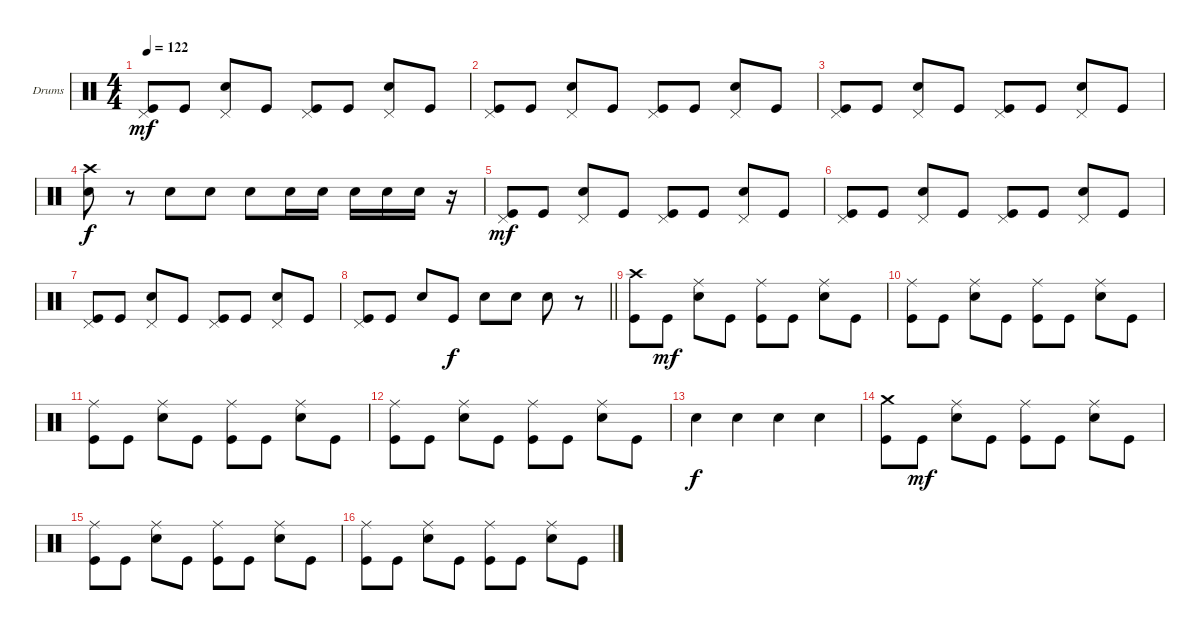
\defaultSystemsLayout 4
\bracketExtendMode groupsimilarinstruments
\firstSystemTrackNameOrientation horizontal
\otherSystemsTrackNameOrientation horizontal
\track ("Drum" "Drums") {instrument percussion}
\staff {score}
\articulation defaults
\ts (4 4)
\tempo 122
\clef neutral
\ks c
("Kick (hit)" "Pedal Hi-Hat (hit)").8{dy mf} "Kick (hit)".8 ("Snare (hit) 2" "Pedal Hi-Hat (hit)").8 "Kick (hit)".8 ("Kick (hit)" "Pedal Hi-Hat (hit)").8 "Kick (hit)".8 ("Snare (hit) 2" "Pedal Hi-Hat (hit)").8 "Kick (hit)".8 |
("Kick (hit)" "Pedal Hi-Hat (hit)").8 "Kick (hit)".8 ("Snare (hit) 2" "Pedal Hi-Hat (hit)").8 "Kick (hit)".8 ("Kick (hit)" "Pedal Hi-Hat (hit)").8 "Kick (hit)".8 ("Snare (hit) 2" "Pedal Hi-Hat (hit)").8 "Kick (hit)".8 |
("Kick (hit)" "Pedal Hi-Hat (hit)").8 "Kick (hit)".8 ("Snare (hit) 2" "Pedal Hi-Hat (hit)").8 "Kick (hit)".8 ("Kick (hit)" "Pedal Hi-Hat (hit)").8 "Kick (hit)".8 ("Snare (hit) 2" "Pedal Hi-Hat (hit)").8 "Kick (hit)".8 |
("Snare (hit) 2" "Crash high (hit)").8{dy f} r.8 "Snare (hit) 2".8 "Snare (hit) 2".8 "Snare (hit) 2".8 "Snare (hit) 2".16 "Snare (hit) 2".16 "Snare (hit) 2".16 "Snare (hit) 2".16 "Snare (hit) 2".16 r.16 |
("Kick (hit)" "Pedal Hi-Hat (hit)").8{dy mf} "Kick (hit)".8 ("Snare (hit) 2" "Pedal Hi-Hat (hit)").8 "Kick (hit)".8 ("Kick (hit)" "Pedal Hi-Hat (hit)").8 "Kick (hit)".8 ("Snare (hit) 2" "Pedal Hi-Hat (hit)").8 "Kick (hit)".8 |
("Kick (hit)" "Pedal Hi-Hat (hit)").8 "Kick (hit)".8 ("Snare (hit) 2" "Pedal Hi-Hat (hit)").8 "Kick (hit)".8 ("Kick (hit)" "Pedal Hi-Hat (hit)").8 "Kick (hit)".8 ("Snare (hit) 2" "Pedal Hi-Hat (hit)").8 "Kick (hit)".8 |
("Kick (hit)" "Pedal Hi-Hat (hit)").8 "Kick (hit)".8 ("Snare (hit) 2" "Pedal Hi-Hat (hit)").8 "Kick (hit)".8 ("Kick (hit)" "Pedal Hi-Hat (hit)").8 "Kick (hit)".8 ("Snare (hit) 2" "Pedal Hi-Hat (hit)").8 "Kick (hit)".8 |
\barLineRight lightlight
("Kick (hit)" "Pedal Hi-Hat (hit)").8 "Kick (hit)".8 "Snare (hit) 2".8 "Kick (hit)".8{dy f} "Snare (hit) 2".8 "Snare (hit) 2".8 "Snare (hit) 2".8 r.8 |
("Kick (hit)" "Crash high (hit)").8 "Kick (hit)".8{dy mf} ("Snare (hit) 2" "Ride (middle)").8 "Kick (hit)".8 ("Kick (hit)" "Ride (middle)").8 "Kick (hit)".8 ("Snare (hit) 2" "Ride (middle)").8 "Kick (hit)".8 |
("Kick (hit)" "Ride (middle)").8 "Kick (hit)".8 ("Snare (hit) 2" "Ride (middle)").8 "Kick (hit)".8 ("Kick (hit)" "Ride (middle)").8 "Kick (hit)".8 ("Snare (hit) 2" "Ride (middle)").8 "Kick (hit)".8 |
("Kick (hit)" "Ride (middle)").8 "Kick (hit)".8 ("Snare (hit) 2" "Ride (middle)").8 "Kick (hit)".8 ("Kick (hit)" "Ride (middle)").8 "Kick (hit)".8 ("Snare (hit) 2" "Ride (middle)").8 "Kick (hit)".8 |
("Kick (hit)" "Ride (middle)").8 "Kick (hit)".8 ("Snare (hit) 2" "Ride (middle)").8 "Kick (hit)".8 ("Kick (hit)" "Ride (middle)").8 "Kick (hit)".8 ("Snare (hit) 2" "Ride (middle)").8 "Kick (hit)".8 |
"Snare (hit) 2".4{dy f} "Snare (hit) 2".4 "Snare (hit) 2".4 "Snare (hit) 2".4 |
("Kick (hit)" "Crash medium (hit)").8 "Kick (hit)".8{dy mf} ("Snare (hit) 2" "Ride (middle)").8 "Kick (hit)".8 ("Kick (hit)" "Ride (middle)").8 "Kick (hit)".8 ("Snare (hit) 2" "Ride (middle)").8 "Kick (hit)".8 |
("Kick (hit)" "Ride (middle)").8 "Kick (hit)".8 ("Snare (hit) 2" "Ride (middle)").8 "Kick (hit)".8 ("Kick (hit)" "Ride (middle)").8 "Kick (hit)".8 ("Snare (hit) 2" "Ride (middle)").8 "Kick (hit)".8 |
("Kick (hit)" "Ride (middle)").8 "Kick (hit)".8 ("Snare (hit) 2" "Ride (middle)").8 "Kick (hit)".8 ("Kick (hit)" "Ride (middle)").8 "Kick (hit)".8 ("Snare (hit) 2" "Ride (middle)").8 "Kick (hit)".8
